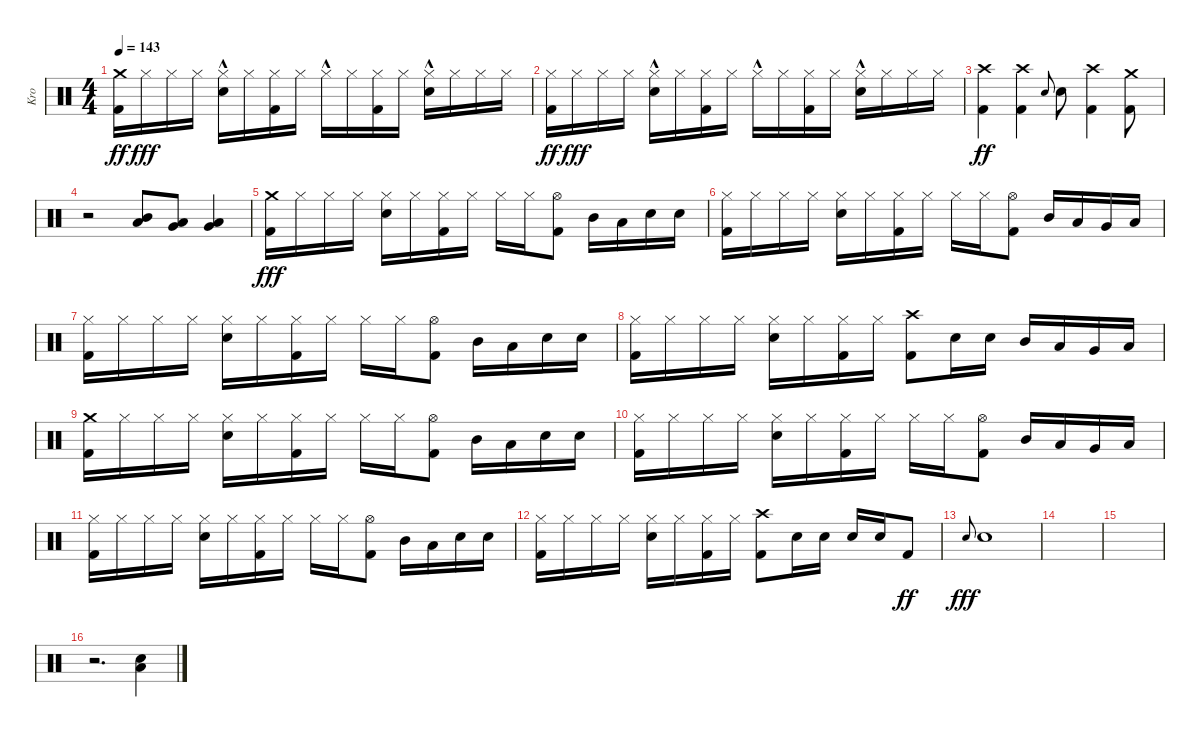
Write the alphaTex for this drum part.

\track ("Kro" "Kro") {instrument percussion}
\staff {score}
\articulation defaults
\ts (4 4)
\tempo 143
\clef neutral
\ks c
("Crash medium (hit)" "Kick (hit) 2").16{dy ff} "Hi-Hat (closed)".16{dy fff} "Hi-Hat (closed)".16 "Hi-Hat (closed)".16 ("Hi-Hat (closed)"{hac} "Electric Snare (hit)").16 "Hi-Hat (closed)".16 ("Hi-Hat (closed)" "Kick (hit) 2").16 "Hi-Hat (closed)".16 "Hi-Hat (closed)"{hac}.16 "Hi-Hat (closed)".16 ("Hi-Hat (closed)" "Kick (hit) 2").16 "Hi-Hat (closed)".16 ("Hi-Hat (closed)"{hac} "Electric Snare (hit)").16 "Hi-Hat (closed)".16 "Hi-Hat (closed)".16 "Hi-Hat (closed)".16 |
("Hi-Hat (closed)" "Kick (hit) 2").16{dy ff} "Hi-Hat (closed)".16{dy fff} "Hi-Hat (closed)".16 "Hi-Hat (closed)".16 ("Hi-Hat (closed)"{hac} "Electric Snare (hit)").16 "Hi-Hat (closed)".16 ("Hi-Hat (closed)" "Kick (hit) 2").16 "Hi-Hat (closed)".16 "Hi-Hat (closed)"{hac}.16 "Hi-Hat (closed)".16 ("Hi-Hat (closed)" "Kick (hit) 2").16 "Hi-Hat (closed)".16 ("Hi-Hat (closed)"{hac} "Electric Snare (hit)").16 "Hi-Hat (closed)".16 "Hi-Hat (closed)".16 "Hi-Hat (closed)".16 |
("Crash high (hit)" "Kick (hit) 2").4{dy ff} ("Crash high (hit)" "Kick (hit) 2").4 "Electric Snare (hit)".8{gr onbeat} "Electric Snare (hit)".8 ("Crash high (hit)" "Kick (hit) 2").4 ("Crash medium (hit)" "Kick (hit) 2").8 |
r.2 ("Mid Tom (hit)" "Low Tom (hit)").8 ("Low Tom (hit)" "Very Low Tom (hit)").8 ("Very Low Tom (hit)" "Low Floor Tom (hit)").4 |
("Crash medium (hit)" "Kick (hit) 2").16{dy fff} "Hi-Hat (closed)".16 "Hi-Hat (closed)".16 "Hi-Hat (closed)".16 ("Hi-Hat (closed)" "Electric Snare (hit)").16 "Hi-Hat (closed)".16 ("Hi-Hat (closed)" "Kick (hit) 2").16 "Hi-Hat (closed)".16 "Hi-Hat (closed)".16 "Hi-Hat (closed)".16 ("Hi-Hat (open)" "Kick (hit) 2").8 "Mid Tom (hit)".16 "Low Tom (hit)".16 "Electric Snare (hit)".16 "Electric Snare (hit)".16 |
("Hi-Hat (closed)" "Kick (hit) 2").16 "Hi-Hat (closed)".16 "Hi-Hat (closed)".16 "Hi-Hat (closed)".16 ("Hi-Hat (closed)" "Electric Snare (hit)").16 "Hi-Hat (closed)".16 ("Hi-Hat (closed)" "Kick (hit) 2").16 "Hi-Hat (closed)".16 "Hi-Hat (closed)".16 "Hi-Hat (closed)".16 ("Hi-Hat (open)" "Kick (hit) 2").8 "Mid Tom (hit)".16 "Low Tom (hit)".16 "Very Low Tom (hit)".16 "Low Floor Tom (hit)".16 |
("Hi-Hat (closed)" "Kick (hit) 2").16 "Hi-Hat (closed)".16 "Hi-Hat (closed)".16 "Hi-Hat (closed)".16 ("Hi-Hat (closed)" "Electric Snare (hit)").16 "Hi-Hat (closed)".16 ("Hi-Hat (closed)" "Kick (hit) 2").16 "Hi-Hat (closed)".16 "Hi-Hat (closed)".16 "Hi-Hat (closed)".16 ("Hi-Hat (open)" "Kick (hit) 2").8 "Mid Tom (hit)".16 "Low Tom (hit)".16 "Electric Snare (hit)".16 "Electric Snare (hit)".16 |
("Hi-Hat (closed)" "Kick (hit) 2").16 "Hi-Hat (closed)".16 "Hi-Hat (closed)".16 "Hi-Hat (closed)".16 ("Hi-Hat (closed)" "Electric Snare (hit)").16 "Hi-Hat (closed)".16 ("Hi-Hat (closed)" "Kick (hit) 2").16 "Hi-Hat (closed)".16 ("Crash high (hit)" "Kick (hit) 2").8 "Electric Snare (hit)".16 "Electric Snare (hit)".16 "Mid Tom (hit)".16 "Low Tom (hit)".16 "Very Low Tom (hit)".16 "Low Floor Tom (hit)".16 |
("Crash medium (hit)" "Kick (hit) 2").16 "Hi-Hat (closed)".16 "Hi-Hat (closed)".16 "Hi-Hat (closed)".16 ("Hi-Hat (closed)" "Electric Snare (hit)").16 "Hi-Hat (closed)".16 ("Hi-Hat (closed)" "Kick (hit) 2").16 "Hi-Hat (closed)".16 "Hi-Hat (closed)".16 "Hi-Hat (closed)".16 ("Hi-Hat (open)" "Kick (hit) 2").8 "Mid Tom (hit)".16 "Low Tom (hit)".16 "Electric Snare (hit)".16 "Electric Snare (hit)".16 |
("Hi-Hat (closed)" "Kick (hit) 2").16 "Hi-Hat (closed)".16 "Hi-Hat (closed)".16 "Hi-Hat (closed)".16 ("Hi-Hat (closed)" "Electric Snare (hit)").16 "Hi-Hat (closed)".16 ("Hi-Hat (closed)" "Kick (hit) 2").16 "Hi-Hat (closed)".16 "Hi-Hat (closed)".16 "Hi-Hat (closed)".16 ("Hi-Hat (open)" "Kick (hit) 2").8 "Mid Tom (hit)".16 "Low Tom (hit)".16 "Very Low Tom (hit)".16 "Low Floor Tom (hit)".16 |
("Hi-Hat (closed)" "Kick (hit) 2").16 "Hi-Hat (closed)".16 "Hi-Hat (closed)".16 "Hi-Hat (closed)".16 ("Hi-Hat (closed)" "Electric Snare (hit)").16 "Hi-Hat (closed)".16 ("Hi-Hat (closed)" "Kick (hit) 2").16 "Hi-Hat (closed)".16 "Hi-Hat (closed)".16 "Hi-Hat (closed)".16 ("Hi-Hat (open)" "Kick (hit) 2").8 "Mid Tom (hit)".16 "Low Tom (hit)".16 "Electric Snare (hit)".16 "Electric Snare (hit)".16 |
("Hi-Hat (closed)" "Kick (hit) 2").16 "Hi-Hat (closed)".16 "Hi-Hat (closed)".16 "Hi-Hat (closed)".16 ("Hi-Hat (closed)" "Electric Snare (hit)").16 "Hi-Hat (closed)".16 ("Hi-Hat (closed)" "Kick (hit) 2").16 "Hi-Hat (closed)".16 ("Crash high (hit)" "Kick (hit) 2").8 "Electric Snare (hit)".16 "Electric Snare (hit)".16 "Electric Snare (hit)".16 "Electric Snare (hit)".16 "Kick (hit) 2".8{dy ff} |
"Electric Snare (hit)".8{gr onbeat dy fff} "Electric Snare (hit)".1 |
|
|
r.2{d} ("Electric Snare (hit)" "Low Tom (hit)").4
